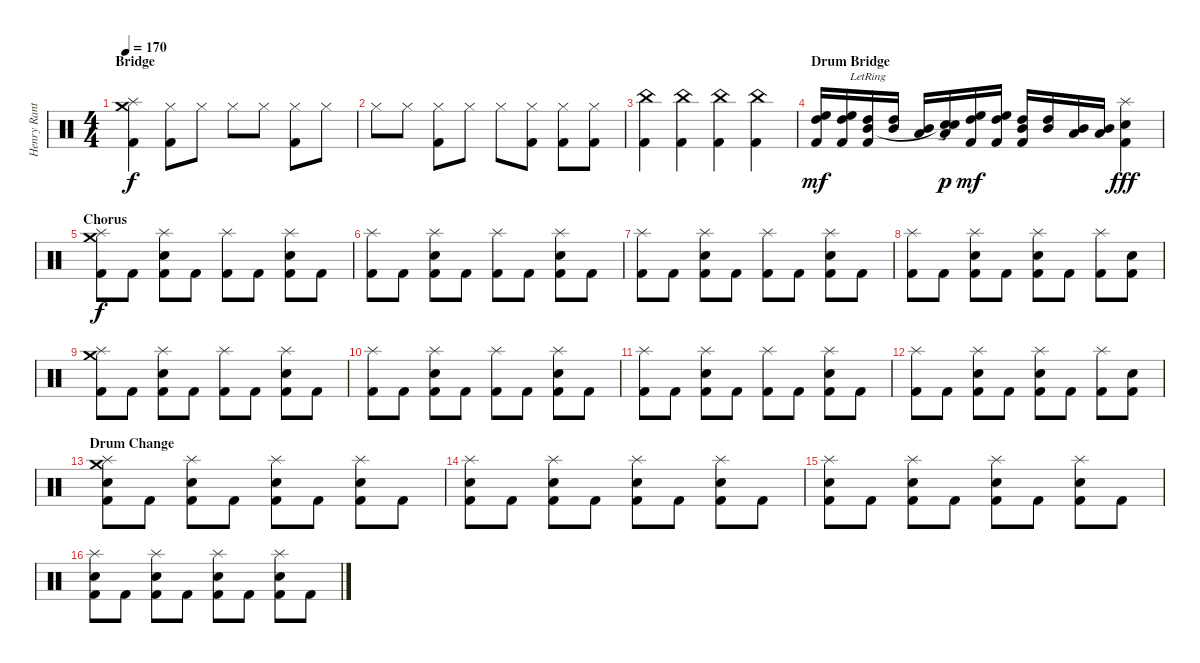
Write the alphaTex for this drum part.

\track ("Henry Ranta -Drums-" "Henry Rant") {instrument percussion}
\staff {score}
\articulation defaults
\ts (4 4)
\section ("" "Bridge")
\tempo 170
\clef neutral
\ks c
("Splash (hit)" "Crash medium (hit)" "Kick (hit) 2").4{dy f} ("Hi-Hat (closed)" "Kick (hit) 2").8 "Hi-Hat (closed)".8 "Hi-Hat (closed)".8 "Hi-Hat (closed)".8 ("Hi-Hat (closed)" "Kick (hit) 2").8 "Hi-Hat (closed)".8 |
"Hi-Hat (closed)".8 "Hi-Hat (closed)".8 ("Hi-Hat (closed)" "Kick (hit) 2").8 "Hi-Hat (closed)".8 "Hi-Hat (closed)".8 ("Hi-Hat (closed)" "Kick (hit) 2").8 ("Hi-Hat (closed)" "Kick (hit) 2").8 ("Hi-Hat (closed)" "Kick (hit) 2").8 |
("China (hit)" "Kick (hit) 2").4 ("China (hit)" "Kick (hit) 2").4 ("China (hit)" "Kick (hit) 2").4 ("China (hit)" "Kick (hit) 2").4 |
\section ("" "Drum Bridge")
("Kick (hit) 2" "High Floor Tom (hit)" "High Tom (hit)").16{dy mf} ("Kick (hit) 2" "High Floor Tom (hit)" "High Tom (hit)").16 ("Kick (hit) 2"{lr} "High Tom (hit)" "Mid Tom (hit)").16 ("High Tom (hit)" "Mid Tom (hit)").16 ("Mid Tom (hit)" "Low Tom (hit)").16 ("Low Tom (hit)" "Snare (hit)"{t} "Snare (hit)"{t}).16{dy p} ("Kick (hit) 2" "High Floor Tom (hit)" "High Tom (hit)").16{dy mf} ("Kick (hit) 2" "High Floor Tom (hit)" "High Tom (hit)").16 ("Kick (hit) 2" "High Tom (hit)" "Mid Tom (hit)").16 ("High Tom (hit)" "Mid Tom (hit)").16 ("Mid Tom (hit)" "Low Tom (hit)").16 ("Mid Tom (hit)" "Low Floor Tom (hit)").16 ("Splash (hit)" "Snare (hit) 2" "Kick (hit) 2").4{dy fff} |
\section ("" "Chorus")
("Splash (hit)" "Crash medium (hit)" "Kick (hit) 2").8{dy f} "Kick (hit) 2".8 ("Splash (hit)" "Snare (hit) 2" "Kick (hit) 2").8 "Kick (hit) 2".8 ("Splash (hit)" "Kick (hit) 2").8 "Kick (hit) 2".8 ("Splash (hit)" "Snare (hit) 2" "Kick (hit) 2").8 "Kick (hit) 2".8 |
("Splash (hit)" "Kick (hit) 2").8 "Kick (hit) 2".8 ("Splash (hit)" "Snare (hit) 2" "Kick (hit) 2").8 "Kick (hit) 2".8 ("Splash (hit)" "Kick (hit) 2").8 "Kick (hit) 2".8 ("Splash (hit)" "Snare (hit) 2" "Kick (hit) 2").8 "Kick (hit) 2".8 |
("Splash (hit)" "Kick (hit) 2").8 "Kick (hit) 2".8 ("Splash (hit)" "Snare (hit) 2" "Kick (hit) 2").8 "Kick (hit) 2".8 ("Splash (hit)" "Kick (hit) 2").8 "Kick (hit) 2".8 ("Splash (hit)" "Snare (hit) 2" "Kick (hit) 2").8 "Kick (hit) 2".8 |
("Splash (hit)" "Kick (hit) 2").8 "Kick (hit) 2".8 ("Splash (hit)" "Snare (hit) 2" "Kick (hit) 2").8 "Kick (hit) 2".8 ("Splash (hit)" "Snare (hit) 2" "Kick (hit) 2").8 "Kick (hit) 2".8 ("Splash (hit)" "Kick (hit) 2").8 ("Snare (hit) 2" "Kick (hit) 2").8 |
("Splash (hit)" "Crash medium (hit)" "Kick (hit) 2").8 "Kick (hit) 2".8 ("Splash (hit)" "Snare (hit) 2" "Kick (hit) 2").8 "Kick (hit) 2".8 ("Splash (hit)" "Kick (hit) 2").8 "Kick (hit) 2".8 ("Splash (hit)" "Snare (hit) 2" "Kick (hit) 2").8 "Kick (hit) 2".8 |
("Splash (hit)" "Kick (hit) 2").8 "Kick (hit) 2".8 ("Splash (hit)" "Snare (hit) 2" "Kick (hit) 2").8 "Kick (hit) 2".8 ("Splash (hit)" "Kick (hit) 2").8 "Kick (hit) 2".8 ("Splash (hit)" "Snare (hit) 2" "Kick (hit) 2").8 "Kick (hit) 2".8 |
("Splash (hit)" "Kick (hit) 2").8 "Kick (hit) 2".8 ("Splash (hit)" "Snare (hit) 2" "Kick (hit) 2").8 "Kick (hit) 2".8 ("Splash (hit)" "Kick (hit) 2").8 "Kick (hit) 2".8 ("Splash (hit)" "Snare (hit) 2" "Kick (hit) 2").8 "Kick (hit) 2".8 |
("Splash (hit)" "Kick (hit) 2").8 "Kick (hit) 2".8 ("Splash (hit)" "Snare (hit) 2" "Kick (hit) 2").8 "Kick (hit) 2".8 ("Splash (hit)" "Snare (hit) 2" "Kick (hit) 2").8 "Kick (hit) 2".8 ("Splash (hit)" "Kick (hit) 2").8 ("Snare (hit) 2" "Kick (hit) 2").8 |
\section ("" "Drum Change")
("Splash (hit)" "Crash medium (hit)" "Snare (hit) 2" "Kick (hit) 2").8 "Kick (hit) 2".8 ("Splash (hit)" "Snare (hit) 2" "Kick (hit) 2").8 "Kick (hit) 2".8 ("Splash (hit)" "Snare (hit) 2" "Kick (hit) 2").8 "Kick (hit) 2".8 ("Splash (hit)" "Snare (hit) 2" "Kick (hit) 2").8 "Kick (hit) 2".8 |
("Splash (hit)" "Snare (hit) 2" "Kick (hit) 2").8 "Kick (hit) 2".8 ("Splash (hit)" "Snare (hit) 2" "Kick (hit) 2").8 "Kick (hit) 2".8 ("Splash (hit)" "Snare (hit) 2" "Kick (hit) 2").8 "Kick (hit) 2".8 ("Splash (hit)" "Snare (hit) 2" "Kick (hit) 2").8 "Kick (hit) 2".8 |
("Splash (hit)" "Snare (hit) 2" "Kick (hit) 2").8 "Kick (hit) 2".8 ("Splash (hit)" "Snare (hit) 2" "Kick (hit) 2").8 "Kick (hit) 2".8 ("Splash (hit)" "Snare (hit) 2" "Kick (hit) 2").8 "Kick (hit) 2".8 ("Splash (hit)" "Snare (hit) 2" "Kick (hit) 2").8 "Kick (hit) 2".8 |
("Splash (hit)" "Snare (hit) 2" "Kick (hit) 2").8 "Kick (hit) 2".8 ("Splash (hit)" "Snare (hit) 2" "Kick (hit) 2").8 "Kick (hit) 2".8 ("Splash (hit)" "Snare (hit) 2" "Kick (hit) 2").8 "Kick (hit) 2".8 ("Splash (hit)" "Snare (hit) 2" "Kick (hit) 2").8 "Kick (hit) 2".8
